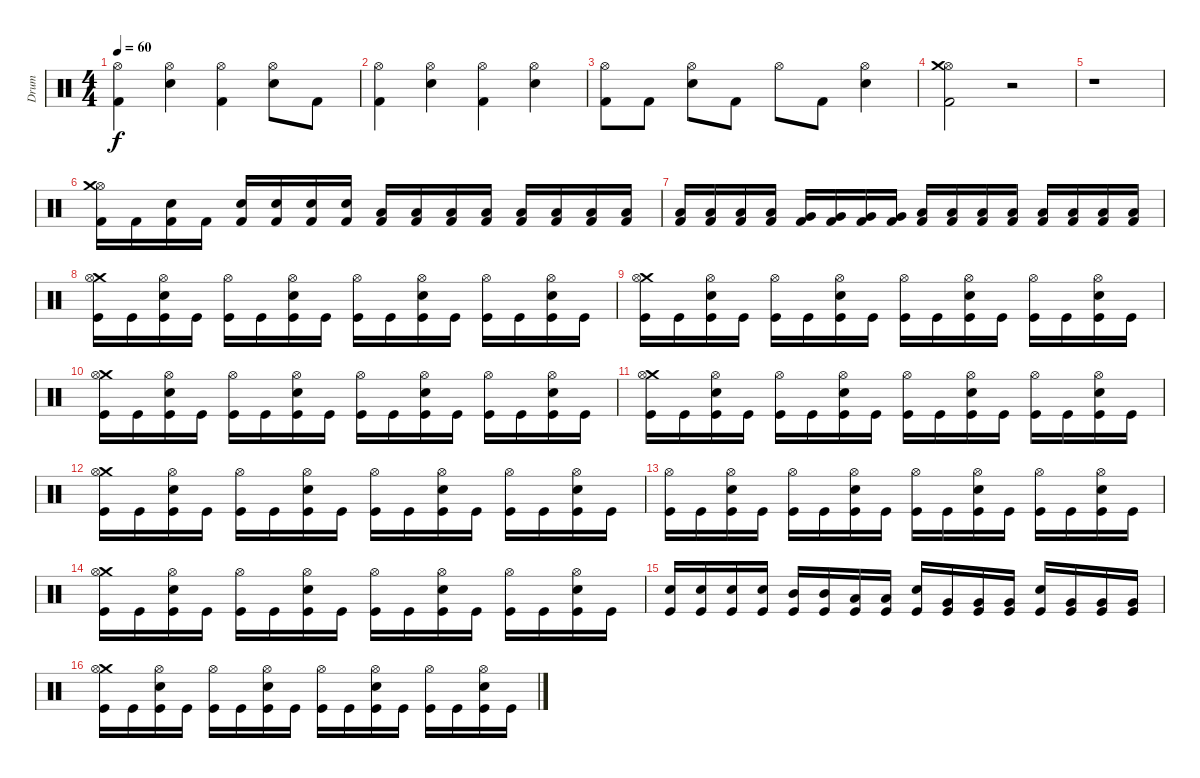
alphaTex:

\track ("Drum" "Drum") {instrument percussion}
\staff {score}
\articulation defaults
\ts (4 4)
\tempo 60
\clef neutral
\ks c
("Kick (hit) 2" "Hi-Hat (open)").4{dy f} ("Electric Snare (hit)" "Hi-Hat (open)").4 ("Kick (hit) 2" "Hi-Hat (open)").4 ("Electric Snare (hit)" "Hi-Hat (open)").8 "Kick (hit) 2".8 |
("Kick (hit) 2" "Hi-Hat (open)").4 ("Electric Snare (hit)" "Hi-Hat (open)").4 ("Kick (hit) 2" "Hi-Hat (open)").4 ("Electric Snare (hit)" "Hi-Hat (open)").4 |
("Kick (hit) 2" "Hi-Hat (open)").8 "Kick (hit) 2".8 ("Electric Snare (hit)" "Hi-Hat (open)").8 "Kick (hit) 2".8 "Hi-Hat (open)".8 "Kick (hit) 2".8 ("Electric Snare (hit)" "Hi-Hat (open)").4 |
("Hi-Hat (open)" "Crash medium (hit)" "Kick (hit) 2").2 r.2 |
r.1 |
("Hi-Hat (open)" "Crash medium (hit)" "Kick (hit) 2").16 "Kick (hit) 2".16 ("Electric Snare (hit)" "Kick (hit) 2").16 "Kick (hit) 2".16 ("Electric Snare (hit)" "Kick (hit) 2").16 ("Electric Snare (hit)" "Kick (hit) 2").16 ("Electric Snare (hit)" "Kick (hit) 2").16 ("Electric Snare (hit)" "Kick (hit) 2").16 ("Low Tom (hit)" "Kick (hit) 2").16 ("Low Tom (hit)" "Kick (hit) 2").16 ("Low Tom (hit)" "Kick (hit) 2").16 ("Low Tom (hit)" "Kick (hit) 2").16 ("Low Tom (hit)" "Kick (hit) 2").16 ("Low Tom (hit)" "Kick (hit) 2").16 ("Low Tom (hit)" "Kick (hit) 2").16 ("Low Tom (hit)" "Kick (hit) 2").16 |
("Low Tom (hit)" "Kick (hit) 2").16 ("Low Tom (hit)" "Kick (hit) 2").16 ("Low Tom (hit)" "Kick (hit) 2").16 ("Low Tom (hit)" "Kick (hit) 2").16 ("Very Low Tom (hit)" "Kick (hit) 2").16 ("Very Low Tom (hit)" "Kick (hit) 2").16 ("Very Low Tom (hit)" "Kick (hit) 2").16 ("Very Low Tom (hit)" "Kick (hit) 2").16 ("Low Floor Tom (hit)" "Kick (hit) 2").16 ("Low Floor Tom (hit)" "Kick (hit) 2").16 ("Low Floor Tom (hit)" "Kick (hit) 2").16 ("Low Floor Tom (hit)" "Kick (hit) 2").16 ("Low Floor Tom (hit)" "Kick (hit) 2").16 ("Low Floor Tom (hit)" "Kick (hit) 2").16 ("Low Floor Tom (hit)" "Kick (hit) 2").16 ("Low Floor Tom (hit)" "Kick (hit) 2").16 |
("Crash medium (hit)" "Hi-Hat (open)" "Kick (hit)").16 "Kick (hit)".16 ("Electric Snare (hit)" "Hi-Hat (open)" "Kick (hit)").16 "Kick (hit)".16 ("Hi-Hat (open)" "Kick (hit)").16 "Kick (hit)".16 ("Electric Snare (hit)" "Hi-Hat (open)" "Kick (hit)").16 "Kick (hit)".16 ("Hi-Hat (open)" "Kick (hit)").16 "Kick (hit)".16 ("Electric Snare (hit)" "Hi-Hat (open)" "Kick (hit)").16 "Kick (hit)".16 ("Hi-Hat (open)" "Kick (hit)").16 "Kick (hit)".16 ("Electric Snare (hit)" "Hi-Hat (open)" "Kick (hit)").16 "Kick (hit)".16 |
("Crash medium (hit)" "Hi-Hat (open)" "Kick (hit)").16 "Kick (hit)".16 ("Electric Snare (hit)" "Hi-Hat (open)" "Kick (hit)").16 "Kick (hit)".16 ("Hi-Hat (open)" "Kick (hit)").16 "Kick (hit)".16 ("Electric Snare (hit)" "Hi-Hat (open)" "Kick (hit)").16 "Kick (hit)".16 ("Hi-Hat (open)" "Kick (hit)").16 "Kick (hit)".16 ("Electric Snare (hit)" "Hi-Hat (open)" "Kick (hit)").16 "Kick (hit)".16 ("Hi-Hat (open)" "Kick (hit)").16 "Kick (hit)".16 ("Electric Snare (hit)" "Hi-Hat (open)" "Kick (hit)").16 "Kick (hit)".16 |
("Crash medium (hit)" "Hi-Hat (open)" "Kick (hit)").16 "Kick (hit)".16 ("Electric Snare (hit)" "Hi-Hat (open)" "Kick (hit)").16 "Kick (hit)".16 ("Hi-Hat (open)" "Kick (hit)").16 "Kick (hit)".16 ("Electric Snare (hit)" "Hi-Hat (open)" "Kick (hit)").16 "Kick (hit)".16 ("Hi-Hat (open)" "Kick (hit)").16 "Kick (hit)".16 ("Electric Snare (hit)" "Hi-Hat (open)" "Kick (hit)").16 "Kick (hit)".16 ("Hi-Hat (open)" "Kick (hit)").16 "Kick (hit)".16 ("Electric Snare (hit)" "Hi-Hat (open)" "Kick (hit)").16 "Kick (hit)".16 |
("Crash medium (hit)" "Hi-Hat (open)" "Kick (hit)").16 "Kick (hit)".16 ("Electric Snare (hit)" "Hi-Hat (open)" "Kick (hit)").16 "Kick (hit)".16 ("Hi-Hat (open)" "Kick (hit)").16 "Kick (hit)".16 ("Electric Snare (hit)" "Hi-Hat (open)" "Kick (hit)").16 "Kick (hit)".16 ("Hi-Hat (open)" "Kick (hit)").16 "Kick (hit)".16 ("Electric Snare (hit)" "Hi-Hat (open)" "Kick (hit)").16 "Kick (hit)".16 ("Hi-Hat (open)" "Kick (hit)").16 "Kick (hit)".16 ("Electric Snare (hit)" "Hi-Hat (open)" "Kick (hit)").16 "Kick (hit)".16 |
("Crash medium (hit)" "Hi-Hat (open)" "Kick (hit)").16 "Kick (hit)".16 ("Electric Snare (hit)" "Hi-Hat (open)" "Kick (hit)").16 "Kick (hit)".16 ("Hi-Hat (open)" "Kick (hit)").16 "Kick (hit)".16 ("Electric Snare (hit)" "Hi-Hat (open)" "Kick (hit)").16 "Kick (hit)".16 ("Hi-Hat (open)" "Kick (hit)").16 "Kick (hit)".16 ("Electric Snare (hit)" "Hi-Hat (open)" "Kick (hit)").16 "Kick (hit)".16 ("Hi-Hat (open)" "Kick (hit)").16 "Kick (hit)".16 ("Electric Snare (hit)" "Hi-Hat (open)" "Kick (hit)").16 "Kick (hit)".16 |
("Hi-Hat (open)" "Kick (hit)").16 "Kick (hit)".16 ("Electric Snare (hit)" "Hi-Hat (open)" "Kick (hit)").16 "Kick (hit)".16 ("Hi-Hat (open)" "Kick (hit)").16 "Kick (hit)".16 ("Electric Snare (hit)" "Hi-Hat (open)" "Kick (hit)").16 "Kick (hit)".16 ("Hi-Hat (open)" "Kick (hit)").16 "Kick (hit)".16 ("Electric Snare (hit)" "Hi-Hat (open)" "Kick (hit)").16 "Kick (hit)".16 ("Hi-Hat (open)" "Kick (hit)").16 "Kick (hit)".16 ("Electric Snare (hit)" "Hi-Hat (open)" "Kick (hit)").16 "Kick (hit)".16 |
("Crash medium (hit)" "Hi-Hat (open)" "Kick (hit)").16 "Kick (hit)".16 ("Electric Snare (hit)" "Hi-Hat (open)" "Kick (hit)").16 "Kick (hit)".16 ("Hi-Hat (open)" "Kick (hit)").16 "Kick (hit)".16 ("Electric Snare (hit)" "Hi-Hat (open)" "Kick (hit)").16 "Kick (hit)".16 ("Hi-Hat (open)" "Kick (hit)").16 "Kick (hit)".16 ("Electric Snare (hit)" "Hi-Hat (open)" "Kick (hit)").16 "Kick (hit)".16 ("Hi-Hat (open)" "Kick (hit)").16 "Kick (hit)".16 ("Electric Snare (hit)" "Hi-Hat (open)" "Kick (hit)").16 "Kick (hit)".16 |
("Electric Snare (hit)" "Kick (hit)").16 ("Electric Snare (hit)" "Kick (hit)").16 ("Electric Snare (hit)" "Kick (hit)").16 ("Electric Snare (hit)" "Kick (hit)").16 ("Mid Tom (hit)" "Kick (hit)").16 ("Mid Tom (hit)" "Kick (hit)").16 ("Low Tom (hit)" "Kick (hit)").16 ("Low Tom (hit)" "Kick (hit)").16 ("Electric Snare (hit)" "Kick (hit)").16 ("Very Low Tom (hit)" "Kick (hit)").16 ("Very Low Tom (hit)" "Kick (hit)").16 ("Very Low Tom (hit)" "Kick (hit)").16 ("Electric Snare (hit)" "Kick (hit)").16 ("Very Low Tom (hit)" "Kick (hit)").16 ("Very Low Tom (hit)" "Kick (hit)").16 ("Very Low Tom (hit)" "Kick (hit)").16 |
("Crash medium (hit)" "Hi-Hat (open)" "Kick (hit)").16 "Kick (hit)".16 ("Electric Snare (hit)" "Hi-Hat (open)" "Kick (hit)").16 "Kick (hit)".16 ("Hi-Hat (open)" "Kick (hit)").16 "Kick (hit)".16 ("Electric Snare (hit)" "Hi-Hat (open)" "Kick (hit)").16 "Kick (hit)".16 ("Hi-Hat (open)" "Kick (hit)").16 "Kick (hit)".16 ("Electric Snare (hit)" "Hi-Hat (open)" "Kick (hit)").16 "Kick (hit)".16 ("Hi-Hat (open)" "Kick (hit)").16 "Kick (hit)".16 ("Electric Snare (hit)" "Hi-Hat (open)" "Kick (hit)").16 "Kick (hit)".16
